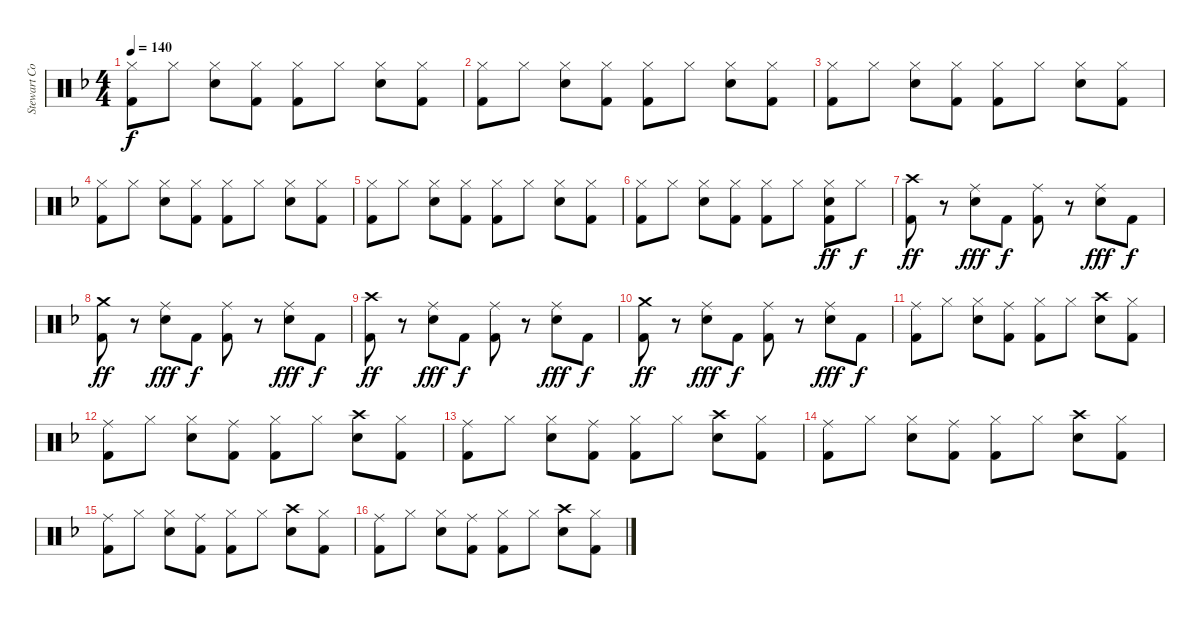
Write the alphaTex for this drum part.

\track ("Stewart Copeland" "Stewart Co") {instrument percussion}
\staff {score}
\articulation defaults
\ts (4 4)
\tempo 140
\clef neutral
\ks f
("Hi-Hat (closed)" "Kick (hit) 2").8{dy f} "Hi-Hat (closed)".8 ("Hi-Hat (closed)" "Snare (hit) 2").8 ("Hi-Hat (closed)" "Kick (hit) 2").8 ("Hi-Hat (closed)" "Kick (hit) 2").8 "Hi-Hat (closed)".8 ("Hi-Hat (closed)" "Snare (hit) 2").8 ("Hi-Hat (closed)" "Kick (hit) 2").8 |
("Hi-Hat (closed)" "Kick (hit) 2").8 "Hi-Hat (closed)".8 ("Hi-Hat (closed)" "Snare (hit) 2").8 ("Hi-Hat (closed)" "Kick (hit) 2").8 ("Hi-Hat (closed)" "Kick (hit) 2").8 "Hi-Hat (closed)".8 ("Hi-Hat (closed)" "Snare (hit) 2").8 ("Hi-Hat (closed)" "Kick (hit) 2").8 |
("Hi-Hat (closed)" "Kick (hit) 2").8 "Hi-Hat (closed)".8 ("Hi-Hat (closed)" "Snare (hit) 2").8 ("Hi-Hat (closed)" "Kick (hit) 2").8 ("Hi-Hat (closed)" "Kick (hit) 2").8 "Hi-Hat (closed)".8 ("Hi-Hat (closed)" "Snare (hit) 2").8 ("Hi-Hat (closed)" "Kick (hit) 2").8 |
("Hi-Hat (closed)" "Kick (hit) 2").8 "Hi-Hat (closed)".8 ("Hi-Hat (closed)" "Snare (hit) 2").8 ("Hi-Hat (closed)" "Kick (hit) 2").8 ("Hi-Hat (closed)" "Kick (hit) 2").8 "Hi-Hat (closed)".8 ("Hi-Hat (closed)" "Snare (hit) 2").8 ("Hi-Hat (closed)" "Kick (hit) 2").8 |
("Hi-Hat (closed)" "Kick (hit) 2").8 "Hi-Hat (closed)".8 ("Hi-Hat (closed)" "Snare (hit) 2").8 ("Hi-Hat (closed)" "Kick (hit) 2").8 ("Hi-Hat (closed)" "Kick (hit) 2").8 "Hi-Hat (closed)".8 ("Hi-Hat (closed)" "Snare (hit) 2").8 ("Hi-Hat (closed)" "Kick (hit) 2").8 |
("Hi-Hat (closed)" "Kick (hit) 2").8 "Hi-Hat (closed)".8 ("Hi-Hat (closed)" "Snare (hit) 2").8 ("Hi-Hat (closed)" "Kick (hit) 2").8 ("Hi-Hat (closed)" "Kick (hit) 2").8 "Hi-Hat (closed)".8 ("Hi-Hat (closed)" "Snare (hit) 2" "Kick (hit) 2").8{dy ff} "Hi-Hat (closed)".8{dy f} |
("Crash high (hit)" "Kick (hit) 2").8{dy ff} r.8 ("Ride (middle)" "Snare (hit) 2").8{dy fff} "Kick (hit) 2".8{dy f} ("Ride (middle)" "Kick (hit) 2").8 r.8 ("Ride (middle)" "Snare (hit) 2").8{dy fff} "Kick (hit) 2".8{dy f} |
("Crash medium (hit)" "Kick (hit) 2").8{dy ff} r.8 ("Ride (middle)" "Snare (hit) 2").8{dy fff} "Kick (hit) 2".8{dy f} ("Ride (middle)" "Kick (hit) 2").8 r.8 ("Ride (middle)" "Snare (hit) 2").8{dy fff} "Kick (hit) 2".8{dy f} |
("Crash high (hit)" "Kick (hit) 2").8{dy ff} r.8 ("Ride (middle)" "Snare (hit) 2").8{dy fff} "Kick (hit) 2".8{dy f} ("Ride (middle)" "Kick (hit) 2").8 r.8 ("Ride (middle)" "Snare (hit) 2").8{dy fff} "Kick (hit) 2".8{dy f} |
("Crash medium (hit)" "Kick (hit) 2").8{dy ff} r.8 ("Ride (middle)" "Snare (hit) 2").8{dy fff} "Kick (hit) 2".8{dy f} ("Ride (middle)" "Kick (hit) 2").8 r.8 ("Ride (middle)" "Snare (hit) 2").8{dy fff} "Kick (hit) 2".8{dy f} |
("Ride (middle)" "Kick (hit) 2").8 "Hi-Hat (closed)".8 ("Hi-Hat (closed)" "Snare (hit) 2").8 ("Ride (middle)" "Kick (hit) 2").8 ("Hi-Hat (closed)" "Kick (hit) 2").8 "Hi-Hat (closed)".8 ("Crash high (hit)" "Snare (hit) 2").8 ("Hi-Hat (closed)" "Kick (hit) 2").8 |
("Ride (middle)" "Kick (hit) 2").8 "Hi-Hat (closed)".8 ("Hi-Hat (closed)" "Snare (hit) 2").8 ("Ride (middle)" "Kick (hit) 2").8 ("Hi-Hat (closed)" "Kick (hit) 2").8 "Hi-Hat (closed)".8 ("Crash high (hit)" "Snare (hit) 2").8 ("Hi-Hat (closed)" "Kick (hit) 2").8 |
("Ride (middle)" "Kick (hit) 2").8 "Hi-Hat (closed)".8 ("Hi-Hat (closed)" "Snare (hit) 2").8 ("Ride (middle)" "Kick (hit) 2").8 ("Hi-Hat (closed)" "Kick (hit) 2").8 "Hi-Hat (closed)".8 ("Crash high (hit)" "Snare (hit) 2").8 ("Hi-Hat (closed)" "Kick (hit) 2").8 |
("Ride (middle)" "Kick (hit) 2").8 "Hi-Hat (closed)".8 ("Hi-Hat (closed)" "Snare (hit) 2").8 ("Ride (middle)" "Kick (hit) 2").8 ("Hi-Hat (closed)" "Kick (hit) 2").8 "Hi-Hat (closed)".8 ("Crash high (hit)" "Snare (hit) 2").8 ("Hi-Hat (closed)" "Kick (hit) 2").8 |
("Ride (middle)" "Kick (hit) 2").8 "Hi-Hat (closed)".8 ("Hi-Hat (closed)" "Snare (hit) 2").8 ("Ride (middle)" "Kick (hit) 2").8 ("Hi-Hat (closed)" "Kick (hit) 2").8 "Hi-Hat (closed)".8 ("Crash high (hit)" "Snare (hit) 2").8 ("Hi-Hat (closed)" "Kick (hit) 2").8 |
("Ride (middle)" "Kick (hit) 2").8 "Hi-Hat (closed)".8 ("Hi-Hat (closed)" "Snare (hit) 2").8 ("Ride (middle)" "Kick (hit) 2").8 ("Hi-Hat (closed)" "Kick (hit) 2").8 "Hi-Hat (closed)".8 ("Crash high (hit)" "Snare (hit) 2").8 ("Hi-Hat (closed)" "Kick (hit) 2").8
